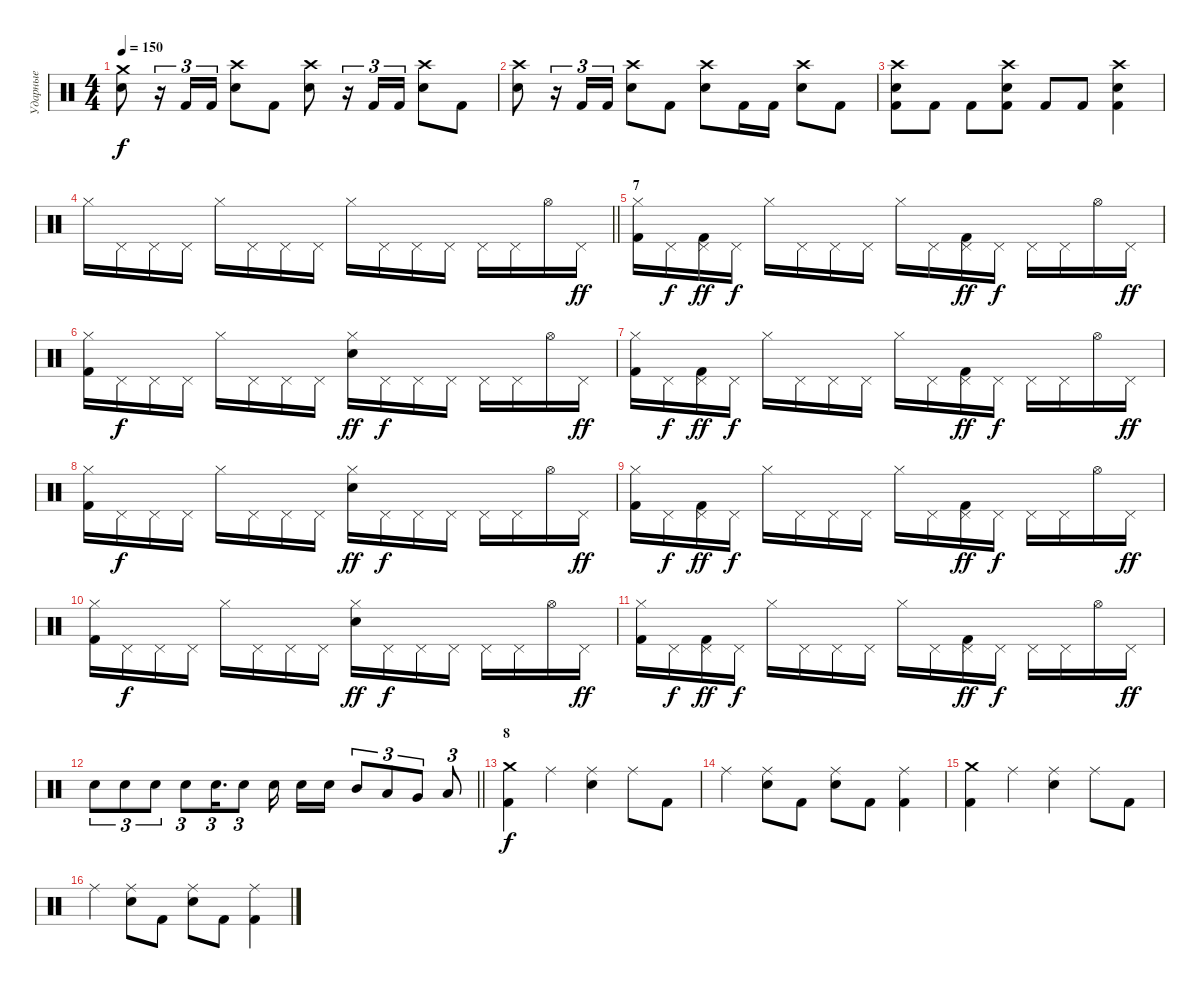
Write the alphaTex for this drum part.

\track ("Ударные" "Ударные") {instrument percussion}
\staff {score}
\articulation defaults
\ts (4 4)
\tempo 150
\clef neutral
\ks c
("Crash medium (hit)" "Electric Snare (hit)").8{dy f} r.16{tu (3 2)} "Kick (hit) 2".16{tu (3 2)} "Kick (hit) 2".16{tu (3 2)} ("Crash high (hit)" "Snare (hit) 2").8 "Kick (hit) 2".8 ("Crash high (hit)" "Snare (hit) 2").8 r.16{tu (3 2)} "Kick (hit) 2".16{tu (3 2)} "Kick (hit) 2".16{tu (3 2)} ("Crash high (hit)" "Snare (hit) 2").8 "Kick (hit) 2".8 |
("Crash high (hit)" "Snare (hit) 2").8 r.16{tu (3 2)} "Kick (hit) 2".16{tu (3 2)} "Kick (hit) 2".16{tu (3 2)} ("Crash high (hit)" "Snare (hit) 2").8 "Kick (hit) 2".8 ("Crash high (hit)" "Snare (hit) 2").8 "Kick (hit) 2".16 "Kick (hit) 2".16 ("Crash high (hit)" "Snare (hit) 2").8 "Kick (hit) 2".8 |
("Crash high (hit)" "Electric Snare (hit)" "Kick (hit) 2").8 "Kick (hit) 2".8 "Kick (hit) 2".8 ("Crash high (hit)" "Electric Snare (hit)" "Kick (hit) 2").8 "Kick (hit) 2".8 "Kick (hit) 2".8 ("Crash high (hit)" "Electric Snare (hit)" "Kick (hit) 2").4 |
\barLineRight lightlight "Hi-Hat (closed)".16 "Pedal Hi-Hat (hit)".16 "Pedal Hi-Hat (hit)".16 "Pedal Hi-Hat (hit)".16 "Hi-Hat (closed)".16 "Pedal Hi-Hat (hit)".16 "Pedal Hi-Hat (hit)".16 "Pedal Hi-Hat (hit)".16 "Hi-Hat (closed)".16 "Pedal Hi-Hat (hit)".16 "Pedal Hi-Hat (hit)".16 "Pedal Hi-Hat (hit)".16 "Pedal Hi-Hat (hit)".16 "Pedal Hi-Hat (hit)".16 "Hi-Hat (open)".16 "Pedal Hi-Hat (hit)".16{dy ff}
|
\section ("" "7")
("Hi-Hat (closed)" "Kick (hit) 2").16 "Pedal Hi-Hat (hit)".16{dy f} ("Pedal Hi-Hat (hit)" "Kick (hit) 2").16{dy ff} "Pedal Hi-Hat (hit)".16{dy f} "Hi-Hat (closed)".16 "Pedal Hi-Hat (hit)".16 "Pedal Hi-Hat (hit)".16 "Pedal Hi-Hat (hit)".16 "Hi-Hat (closed)".16 "Pedal Hi-Hat (hit)".16 ("Pedal Hi-Hat (hit)" "Kick (hit) 2").16{dy ff} "Pedal Hi-Hat (hit)".16{dy f} "Pedal Hi-Hat (hit)".16 "Pedal Hi-Hat (hit)".16 "Hi-Hat (open)".16 "Pedal Hi-Hat (hit)".16{dy ff} |
("Hi-Hat (closed)" "Kick (hit) 2").16 "Pedal Hi-Hat (hit)".16{dy f} "Pedal Hi-Hat (hit)".16 "Pedal Hi-Hat (hit)".16 "Hi-Hat (closed)".16 "Pedal Hi-Hat (hit)".16 "Pedal Hi-Hat (hit)".16 "Pedal Hi-Hat (hit)".16 ("Hi-Hat (closed)" "Electric Snare (hit)").16{dy ff} "Pedal Hi-Hat (hit)".16{dy f} "Pedal Hi-Hat (hit)".16 "Pedal Hi-Hat (hit)".16 "Pedal Hi-Hat (hit)".16 "Pedal Hi-Hat (hit)".16 "Hi-Hat (open)".16 "Pedal Hi-Hat (hit)".16{dy ff} |
("Hi-Hat (closed)" "Kick (hit) 2").16 "Pedal Hi-Hat (hit)".16{dy f} ("Pedal Hi-Hat (hit)" "Kick (hit) 2").16{dy ff} "Pedal Hi-Hat (hit)".16{dy f} "Hi-Hat (closed)".16 "Pedal Hi-Hat (hit)".16 "Pedal Hi-Hat (hit)".16 "Pedal Hi-Hat (hit)".16 "Hi-Hat (closed)".16 "Pedal Hi-Hat (hit)".16 ("Pedal Hi-Hat (hit)" "Kick (hit) 2").16{dy ff} "Pedal Hi-Hat (hit)".16{dy f} "Pedal Hi-Hat (hit)".16 "Pedal Hi-Hat (hit)".16 "Hi-Hat (open)".16 "Pedal Hi-Hat (hit)".16{dy ff} |
("Hi-Hat (closed)" "Kick (hit) 2").16 "Pedal Hi-Hat (hit)".16{dy f} "Pedal Hi-Hat (hit)".16 "Pedal Hi-Hat (hit)".16 "Hi-Hat (closed)".16 "Pedal Hi-Hat (hit)".16 "Pedal Hi-Hat (hit)".16 "Pedal Hi-Hat (hit)".16 ("Hi-Hat (closed)" "Electric Snare (hit)").16{dy ff} "Pedal Hi-Hat (hit)".16{dy f} "Pedal Hi-Hat (hit)".16 "Pedal Hi-Hat (hit)".16 "Pedal Hi-Hat (hit)".16 "Pedal Hi-Hat (hit)".16 "Hi-Hat (open)".16 "Pedal Hi-Hat (hit)".16{dy ff} |
("Hi-Hat (closed)" "Kick (hit) 2").16 "Pedal Hi-Hat (hit)".16{dy f} ("Pedal Hi-Hat (hit)" "Kick (hit) 2").16{dy ff} "Pedal Hi-Hat (hit)".16{dy f} "Hi-Hat (closed)".16 "Pedal Hi-Hat (hit)".16 "Pedal Hi-Hat (hit)".16 "Pedal Hi-Hat (hit)".16 "Hi-Hat (closed)".16 "Pedal Hi-Hat (hit)".16 ("Pedal Hi-Hat (hit)" "Kick (hit) 2").16{dy ff} "Pedal Hi-Hat (hit)".16{dy f} "Pedal Hi-Hat (hit)".16 "Pedal Hi-Hat (hit)".16 "Hi-Hat (open)".16 "Pedal Hi-Hat (hit)".16{dy ff} |
("Hi-Hat (closed)" "Kick (hit) 2").16 "Pedal Hi-Hat (hit)".16{dy f} "Pedal Hi-Hat (hit)".16 "Pedal Hi-Hat (hit)".16 "Hi-Hat (closed)".16 "Pedal Hi-Hat (hit)".16 "Pedal Hi-Hat (hit)".16 "Pedal Hi-Hat (hit)".16 ("Hi-Hat (closed)" "Electric Snare (hit)").16{dy ff} "Pedal Hi-Hat (hit)".16{dy f} "Pedal Hi-Hat (hit)".16 "Pedal Hi-Hat (hit)".16 "Pedal Hi-Hat (hit)".16 "Pedal Hi-Hat (hit)".16 "Hi-Hat (open)".16 "Pedal Hi-Hat (hit)".16{dy ff} |
("Hi-Hat (closed)" "Kick (hit) 2").16 "Pedal Hi-Hat (hit)".16{dy f} ("Pedal Hi-Hat (hit)" "Kick (hit) 2").16{dy ff} "Pedal Hi-Hat (hit)".16{dy f} "Hi-Hat (closed)".16 "Pedal Hi-Hat (hit)".16 "Pedal Hi-Hat (hit)".16 "Pedal Hi-Hat (hit)".16 "Hi-Hat (closed)".16 "Pedal Hi-Hat (hit)".16 ("Pedal Hi-Hat (hit)" "Kick (hit) 2").16{dy ff} "Pedal Hi-Hat (hit)".16{dy f} "Pedal Hi-Hat (hit)".16 "Pedal Hi-Hat (hit)".16 "Hi-Hat (open)".16 "Pedal Hi-Hat (hit)".16{dy ff} |
\barLineRight lightlight "Snare (hit) 2".8{tu (3 2)} "Snare (hit) 2".8{tu (3 2)} "Snare (hit) 2".8{tu (3 2)} "Snare (hit) 2".8{tu (3 2)} "Snare (hit) 2".16{d tu (3 2)} "Snare (hit) 2".8{tu (3 2)} "Electric Snare (hit)".16 "Electric Snare (hit)".16 "Electric Snare (hit)".16 "Mid Tom (hit)".8{tu (3 2)} "Low Tom (hit)".8{tu (3 2)} "Very Low Tom (hit)".8{tu (3 2)} "Low Floor Tom (hit)".8{tu (3 2)}
|
\section ("" "8")
("Crash medium (hit)" "Kick (hit) 2").4{dy f} "Ride (middle)".4 ("Ride (middle)" "Electric Snare (hit)").4 "Ride (middle)".8 "Kick (hit) 2".8 |
"Ride (middle)".4 ("Ride (middle)" "Electric Snare (hit)").8 "Kick (hit) 2".8 ("Ride (middle)" "Electric Snare (hit)").8 "Kick (hit) 2".8 ("Ride (middle)" "Kick (hit) 2").4 |
("Crash medium (hit)" "Kick (hit) 2").4 "Ride (middle)".4 ("Ride (middle)" "Electric Snare (hit)").4 "Ride (middle)".8 "Kick (hit) 2".8 |
"Ride (middle)".4 ("Ride (middle)" "Electric Snare (hit)").8 "Kick (hit) 2".8 ("Ride (middle)" "Electric Snare (hit)").8 "Kick (hit) 2".8 ("Ride (middle)" "Kick (hit) 2").4
